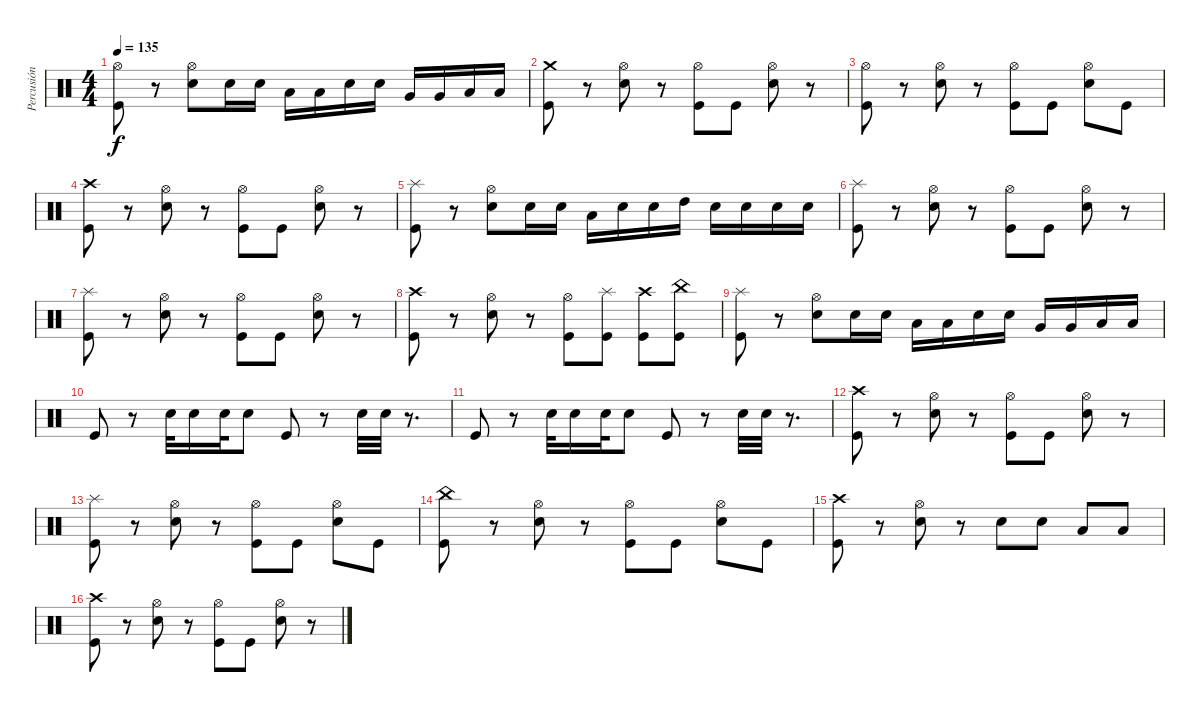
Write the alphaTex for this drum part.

\track ("Percusión" "Percusión") {instrument percussion}
\staff {score}
\articulation defaults
\ts (4 4)
\tempo 135
\clef neutral
\ks c
("Kick (hit)" "Hi-Hat (open)").8{dy f} r.8 ("Electric Snare (hit)" "Hi-Hat (open)").8 "Electric Snare (hit)".16 "Electric Snare (hit)".16 "Low Floor Tom (hit)".16 "Low Floor Tom (hit)".16 "Electric Snare (hit)".16 "Electric Snare (hit)".16 "Very Low Tom (hit)".16 "Very Low Tom (hit)".16 "Low Tom (hit)".16 "Low Tom (hit)".16 |
("Kick (hit)" "Crash medium (hit)").8 r.8 ("Electric Snare (hit)" "Hi-Hat (open)").8 r.8 ("Kick (hit)" "Hi-Hat (open)").8 "Kick (hit)".8 ("Electric Snare (hit)" "Hi-Hat (open)").8 r.8 |
("Kick (hit)" "Hi-Hat (open)").8 r.8 ("Electric Snare (hit)" "Hi-Hat (open)").8 r.8 ("Kick (hit)" "Hi-Hat (open)").8 "Kick (hit)".8 ("Electric Snare (hit)" "Hi-Hat (open)").8 "Kick (hit)".8 |
("Kick (hit)" "Crash high (hit)").8 r.8 ("Electric Snare (hit)" "Hi-Hat (open)").8 r.8 ("Kick (hit)" "Hi-Hat (open)").8 "Kick (hit)".8 ("Electric Snare (hit)" "Hi-Hat (open)").8 r.8 |
("Kick (hit)" "Splash (hit)").8 r.8 ("Electric Snare (hit)" "Hi-Hat (open)").8 "Electric Snare (hit)".16 "Electric Snare (hit)".16 "Low Tom (hit)".16 "Electric Snare (hit)".16 "Electric Snare (hit)".16 "High Tom (hit)".16 "Electric Snare (hit)".16 "Electric Snare (hit)".16 "Electric Snare (hit)".16 "Electric Snare (hit)".16 |
("Kick (hit)" "Splash (hit)").8 r.8 ("Electric Snare (hit)" "Hi-Hat (open)").8 r.8 ("Kick (hit)" "Hi-Hat (open)").8 "Kick (hit)".8 ("Electric Snare (hit)" "Hi-Hat (open)").8 r.8 |
("Kick (hit)" "Splash (hit)").8 r.8 ("Electric Snare (hit)" "Hi-Hat (open)").8 r.8 ("Kick (hit)" "Hi-Hat (open)").8 "Kick (hit)".8 ("Electric Snare (hit)" "Hi-Hat (open)").8 r.8 |
("Kick (hit)" "Crash high (hit)").8 r.8 ("Electric Snare (hit)" "Hi-Hat (open)").8 r.8 ("Kick (hit)" "Hi-Hat (open)").8 ("Kick (hit)" "Splash (hit)").8 ("Kick (hit)" "Crash high (hit)").8 ("Kick (hit)" "China (hit)").8 |
("Kick (hit)" "Splash (hit)").8 r.8 ("Electric Snare (hit)" "Hi-Hat (open)").8 "Electric Snare (hit)".16 "Electric Snare (hit)".16 "Low Floor Tom (hit)".16 "Low Floor Tom (hit)".16 "Electric Snare (hit)".16 "Electric Snare (hit)".16 "Very Low Tom (hit)".16 "Very Low Tom (hit)".16 "Low Tom (hit)".16 "Low Tom (hit)".16 |
"Kick (hit)".8 r.8 "Electric Snare (hit)".32 "Electric Snare (hit)".16 "Electric Snare (hit)".32 "Electric Snare (hit)".8 "Kick (hit)".8 r.8 "Electric Snare (hit)".32 "Electric Snare (hit)".32 r.8{d} |
"Kick (hit)".8 r.8 "Electric Snare (hit)".32 "Electric Snare (hit)".16 "Electric Snare (hit)".32 "Electric Snare (hit)".8 "Kick (hit)".8 r.8 "Electric Snare (hit)".32 "Electric Snare (hit)".32 r.8{d} |
("Kick (hit)" "Crash high (hit)").8 r.8 ("Electric Snare (hit)" "Hi-Hat (open)").8 r.8 ("Kick (hit)" "Hi-Hat (open)").8 "Kick (hit)".8 ("Electric Snare (hit)" "Hi-Hat (open)").8 r.8 |
("Kick (hit)" "Splash (hit)").8 r.8 ("Electric Snare (hit)" "Hi-Hat (open)").8 r.8 ("Kick (hit)" "Hi-Hat (open)").8 "Kick (hit)".8 ("Electric Snare (hit)" "Hi-Hat (open)").8 "Kick (hit)".8 |
("Kick (hit)" "China (hit)").8 r.8 ("Electric Snare (hit)" "Hi-Hat (open)").8 r.8 ("Kick (hit)" "Hi-Hat (open)").8 "Kick (hit)".8 ("Electric Snare (hit)" "Hi-Hat (open)").8 "Kick (hit)".8 |
("Kick (hit)" "Crash high (hit)").8 r.8 ("Electric Snare (hit)" "Hi-Hat (open)").8 r.8 "Electric Snare (hit)".8 "Electric Snare (hit)".8 "Low Tom (hit)".8 "Low Tom (hit)".8 |
("Kick (hit)" "Crash high (hit)").8 r.8 ("Electric Snare (hit)" "Hi-Hat (open)").8 r.8 ("Kick (hit)" "Hi-Hat (open)").8 "Kick (hit)".8 ("Electric Snare (hit)" "Hi-Hat (open)").8 r.8
